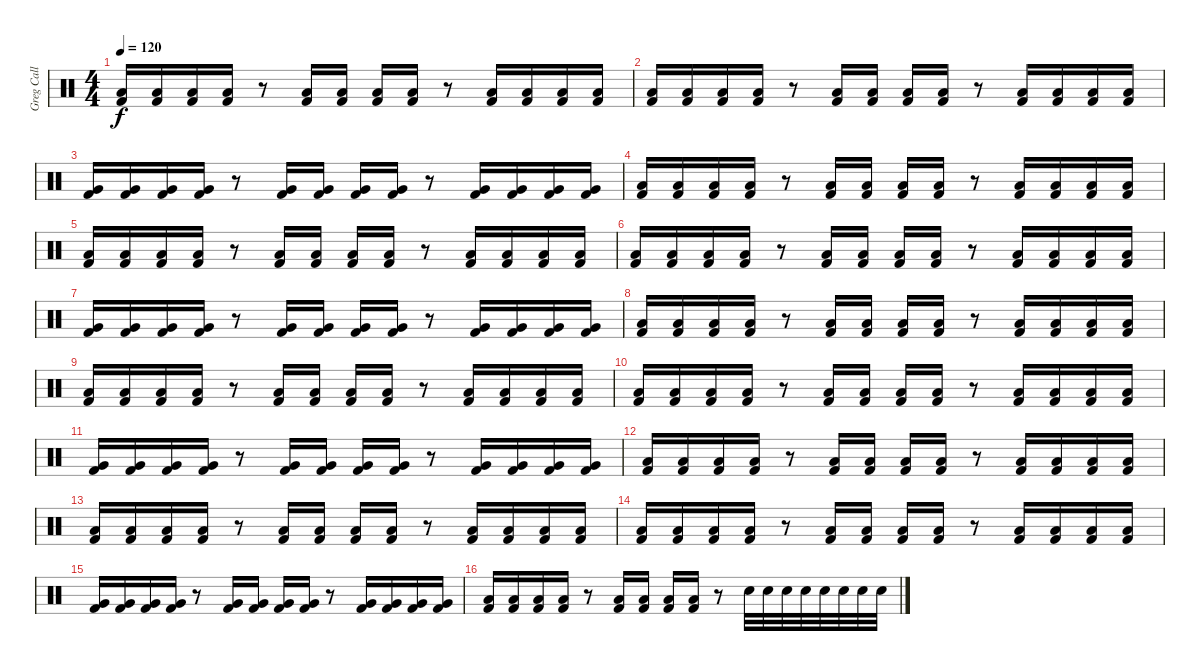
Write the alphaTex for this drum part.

\track ("Greg Call" "Greg Call") {instrument percussion}
\staff {score}
\articulation defaults
\ts (4 4)
\tempo 120
\clef neutral
\ks c
("Low Floor Tom (hit)" "Kick (hit) 2").16{dy f volume 14} ("Low Floor Tom (hit)" "Kick (hit) 2").16 ("Low Floor Tom (hit)" "Kick (hit) 2").16 ("Low Floor Tom (hit)" "Kick (hit) 2").16 r.8 ("Low Floor Tom (hit)" "Kick (hit) 2").16 ("Low Floor Tom (hit)" "Kick (hit) 2").16 ("Low Floor Tom (hit)" "Kick (hit) 2").16 ("Low Floor Tom (hit)" "Kick (hit) 2").16 r.8 ("Low Floor Tom (hit)" "Kick (hit) 2").16 ("Low Floor Tom (hit)" "Kick (hit) 2").16 ("Low Floor Tom (hit)" "Kick (hit) 2").16 ("Low Floor Tom (hit)" "Kick (hit) 2").16 |
("Low Floor Tom (hit)" "Kick (hit) 2").16 ("Low Floor Tom (hit)" "Kick (hit) 2").16 ("Low Floor Tom (hit)" "Kick (hit) 2").16 ("Low Floor Tom (hit)" "Kick (hit) 2").16 r.8 ("Low Floor Tom (hit)" "Kick (hit) 2").16 ("Low Floor Tom (hit)" "Kick (hit) 2").16 ("Low Floor Tom (hit)" "Kick (hit) 2").16 ("Low Floor Tom (hit)" "Kick (hit) 2").16 r.8 ("Low Floor Tom (hit)" "Kick (hit) 2").16 ("Low Floor Tom (hit)" "Kick (hit) 2").16 ("Low Floor Tom (hit)" "Kick (hit) 2").16 ("Low Floor Tom (hit)" "Kick (hit) 2").16 |
("Very Low Tom (hit)" "Kick (hit) 2").16 ("Very Low Tom (hit)" "Kick (hit) 2").16 ("Very Low Tom (hit)" "Kick (hit) 2").16 ("Very Low Tom (hit)" "Kick (hit) 2").16 r.8 ("Very Low Tom (hit)" "Kick (hit) 2").16 ("Very Low Tom (hit)" "Kick (hit) 2").16 ("Very Low Tom (hit)" "Kick (hit) 2").16 ("Very Low Tom (hit)" "Kick (hit) 2").16 r.8 ("Very Low Tom (hit)" "Kick (hit) 2").16 ("Very Low Tom (hit)" "Kick (hit) 2").16 ("Very Low Tom (hit)" "Kick (hit) 2").16 ("Very Low Tom (hit)" "Kick (hit) 2").16 |
("Low Tom (hit)" "Kick (hit) 2").16 ("Low Tom (hit)" "Kick (hit) 2").16 ("Low Tom (hit)" "Kick (hit) 2").16 ("Low Tom (hit)" "Kick (hit) 2").16 r.8 ("Low Tom (hit)" "Kick (hit) 2").16 ("Low Tom (hit)" "Kick (hit) 2").16 ("Low Tom (hit)" "Kick (hit) 2").16 ("Low Tom (hit)" "Kick (hit) 2").16 r.8 ("Low Tom (hit)" "Kick (hit) 2").16 ("Low Tom (hit)" "Kick (hit) 2").16 ("Low Tom (hit)" "Kick (hit) 2").16 ("Low Tom (hit)" "Kick (hit) 2").16 |
("Low Floor Tom (hit)" "Kick (hit) 2").16{volume 14} ("Low Floor Tom (hit)" "Kick (hit) 2").16 ("Low Floor Tom (hit)" "Kick (hit) 2").16 ("Low Floor Tom (hit)" "Kick (hit) 2").16 r.8 ("Low Floor Tom (hit)" "Kick (hit) 2").16 ("Low Floor Tom (hit)" "Kick (hit) 2").16 ("Low Floor Tom (hit)" "Kick (hit) 2").16 ("Low Floor Tom (hit)" "Kick (hit) 2").16 r.8 ("Low Floor Tom (hit)" "Kick (hit) 2").16 ("Low Floor Tom (hit)" "Kick (hit) 2").16 ("Low Floor Tom (hit)" "Kick (hit) 2").16 ("Low Floor Tom (hit)" "Kick (hit) 2").16 |
("Low Floor Tom (hit)" "Kick (hit) 2").16 ("Low Floor Tom (hit)" "Kick (hit) 2").16 ("Low Floor Tom (hit)" "Kick (hit) 2").16 ("Low Floor Tom (hit)" "Kick (hit) 2").16 r.8 ("Low Floor Tom (hit)" "Kick (hit) 2").16 ("Low Floor Tom (hit)" "Kick (hit) 2").16 ("Low Floor Tom (hit)" "Kick (hit) 2").16 ("Low Floor Tom (hit)" "Kick (hit) 2").16 r.8 ("Low Floor Tom (hit)" "Kick (hit) 2").16 ("Low Floor Tom (hit)" "Kick (hit) 2").16 ("Low Floor Tom (hit)" "Kick (hit) 2").16 ("Low Floor Tom (hit)" "Kick (hit) 2").16 |
("Very Low Tom (hit)" "Kick (hit) 2").16 ("Very Low Tom (hit)" "Kick (hit) 2").16 ("Very Low Tom (hit)" "Kick (hit) 2").16 ("Very Low Tom (hit)" "Kick (hit) 2").16 r.8 ("Very Low Tom (hit)" "Kick (hit) 2").16 ("Very Low Tom (hit)" "Kick (hit) 2").16 ("Very Low Tom (hit)" "Kick (hit) 2").16 ("Very Low Tom (hit)" "Kick (hit) 2").16 r.8 ("Very Low Tom (hit)" "Kick (hit) 2").16 ("Very Low Tom (hit)" "Kick (hit) 2").16 ("Very Low Tom (hit)" "Kick (hit) 2").16 ("Very Low Tom (hit)" "Kick (hit) 2").16 |
("Low Tom (hit)" "Kick (hit) 2").16 ("Low Tom (hit)" "Kick (hit) 2").16 ("Low Tom (hit)" "Kick (hit) 2").16 ("Low Tom (hit)" "Kick (hit) 2").16 r.8 ("Low Tom (hit)" "Kick (hit) 2").16 ("Low Tom (hit)" "Kick (hit) 2").16 ("Low Tom (hit)" "Kick (hit) 2").16 ("Low Tom (hit)" "Kick (hit) 2").16 r.8 ("Low Tom (hit)" "Kick (hit) 2").16 ("Low Tom (hit)" "Kick (hit) 2").16 ("Low Tom (hit)" "Kick (hit) 2").16 ("Low Tom (hit)" "Kick (hit) 2").16 |
("Low Floor Tom (hit)" "Kick (hit) 2").16{volume 14} ("Low Floor Tom (hit)" "Kick (hit) 2").16 ("Low Floor Tom (hit)" "Kick (hit) 2").16 ("Low Floor Tom (hit)" "Kick (hit) 2").16 r.8 ("Low Floor Tom (hit)" "Kick (hit) 2").16 ("Low Floor Tom (hit)" "Kick (hit) 2").16 ("Low Floor Tom (hit)" "Kick (hit) 2").16 ("Low Floor Tom (hit)" "Kick (hit) 2").16 r.8 ("Low Floor Tom (hit)" "Kick (hit) 2").16 ("Low Floor Tom (hit)" "Kick (hit) 2").16 ("Low Floor Tom (hit)" "Kick (hit) 2").16 ("Low Floor Tom (hit)" "Kick (hit) 2").16 |
("Low Floor Tom (hit)" "Kick (hit) 2").16 ("Low Floor Tom (hit)" "Kick (hit) 2").16 ("Low Floor Tom (hit)" "Kick (hit) 2").16 ("Low Floor Tom (hit)" "Kick (hit) 2").16 r.8 ("Low Floor Tom (hit)" "Kick (hit) 2").16 ("Low Floor Tom (hit)" "Kick (hit) 2").16 ("Low Floor Tom (hit)" "Kick (hit) 2").16 ("Low Floor Tom (hit)" "Kick (hit) 2").16 r.8 ("Low Floor Tom (hit)" "Kick (hit) 2").16 ("Low Floor Tom (hit)" "Kick (hit) 2").16 ("Low Floor Tom (hit)" "Kick (hit) 2").16 ("Low Floor Tom (hit)" "Kick (hit) 2").16 |
("Very Low Tom (hit)" "Kick (hit) 2").16 ("Very Low Tom (hit)" "Kick (hit) 2").16 ("Very Low Tom (hit)" "Kick (hit) 2").16 ("Very Low Tom (hit)" "Kick (hit) 2").16 r.8 ("Very Low Tom (hit)" "Kick (hit) 2").16 ("Very Low Tom (hit)" "Kick (hit) 2").16 ("Very Low Tom (hit)" "Kick (hit) 2").16 ("Very Low Tom (hit)" "Kick (hit) 2").16 r.8 ("Very Low Tom (hit)" "Kick (hit) 2").16 ("Very Low Tom (hit)" "Kick (hit) 2").16 ("Very Low Tom (hit)" "Kick (hit) 2").16 ("Very Low Tom (hit)" "Kick (hit) 2").16 |
("Low Tom (hit)" "Kick (hit) 2").16 ("Low Tom (hit)" "Kick (hit) 2").16 ("Low Tom (hit)" "Kick (hit) 2").16 ("Low Tom (hit)" "Kick (hit) 2").16 r.8 ("Low Tom (hit)" "Kick (hit) 2").16 ("Low Tom (hit)" "Kick (hit) 2").16 ("Low Tom (hit)" "Kick (hit) 2").16 ("Low Tom (hit)" "Kick (hit) 2").16 r.8 ("Low Tom (hit)" "Kick (hit) 2").16 ("Low Tom (hit)" "Kick (hit) 2").16 ("Low Tom (hit)" "Kick (hit) 2").16 ("Low Tom (hit)" "Kick (hit) 2").16 |
("Low Floor Tom (hit)" "Kick (hit) 2").16{volume 14} ("Low Floor Tom (hit)" "Kick (hit) 2").16 ("Low Floor Tom (hit)" "Kick (hit) 2").16 ("Low Floor Tom (hit)" "Kick (hit) 2").16 r.8 ("Low Floor Tom (hit)" "Kick (hit) 2").16 ("Low Floor Tom (hit)" "Kick (hit) 2").16 ("Low Floor Tom (hit)" "Kick (hit) 2").16 ("Low Floor Tom (hit)" "Kick (hit) 2").16 r.8 ("Low Floor Tom (hit)" "Kick (hit) 2").16 ("Low Floor Tom (hit)" "Kick (hit) 2").16 ("Low Floor Tom (hit)" "Kick (hit) 2").16 ("Low Floor Tom (hit)" "Kick (hit) 2").16 |
("Low Floor Tom (hit)" "Kick (hit) 2").16 ("Low Floor Tom (hit)" "Kick (hit) 2").16 ("Low Floor Tom (hit)" "Kick (hit) 2").16 ("Low Floor Tom (hit)" "Kick (hit) 2").16 r.8 ("Low Floor Tom (hit)" "Kick (hit) 2").16 ("Low Floor Tom (hit)" "Kick (hit) 2").16 ("Low Floor Tom (hit)" "Kick (hit) 2").16 ("Low Floor Tom (hit)" "Kick (hit) 2").16 r.8 ("Low Floor Tom (hit)" "Kick (hit) 2").16 ("Low Floor Tom (hit)" "Kick (hit) 2").16 ("Low Floor Tom (hit)" "Kick (hit) 2").16 ("Low Floor Tom (hit)" "Kick (hit) 2").16 |
("Very Low Tom (hit)" "Kick (hit) 2").16 ("Very Low Tom (hit)" "Kick (hit) 2").16 ("Very Low Tom (hit)" "Kick (hit) 2").16 ("Very Low Tom (hit)" "Kick (hit) 2").16 r.8 ("Very Low Tom (hit)" "Kick (hit) 2").16 ("Very Low Tom (hit)" "Kick (hit) 2").16 ("Very Low Tom (hit)" "Kick (hit) 2").16 ("Very Low Tom (hit)" "Kick (hit) 2").16 r.8 ("Very Low Tom (hit)" "Kick (hit) 2").16 ("Very Low Tom (hit)" "Kick (hit) 2").16 ("Very Low Tom (hit)" "Kick (hit) 2").16 ("Very Low Tom (hit)" "Kick (hit) 2").16 |
("Low Tom (hit)" "Kick (hit) 2").16 ("Low Tom (hit)" "Kick (hit) 2").16 ("Low Tom (hit)" "Kick (hit) 2").16 ("Low Tom (hit)" "Kick (hit) 2").16 r.8 ("Low Tom (hit)" "Kick (hit) 2").16 ("Low Tom (hit)" "Kick (hit) 2").16 ("Low Tom (hit)" "Kick (hit) 2").16 ("Low Tom (hit)" "Kick (hit) 2").16 r.8 "Snare (hit) 2".32 "Snare (hit) 2".32 "Snare (hit) 2".32 "Snare (hit) 2".32 "Snare (hit) 2".32 "Snare (hit) 2".32 "Snare (hit) 2".32 "Snare (hit) 2".32
